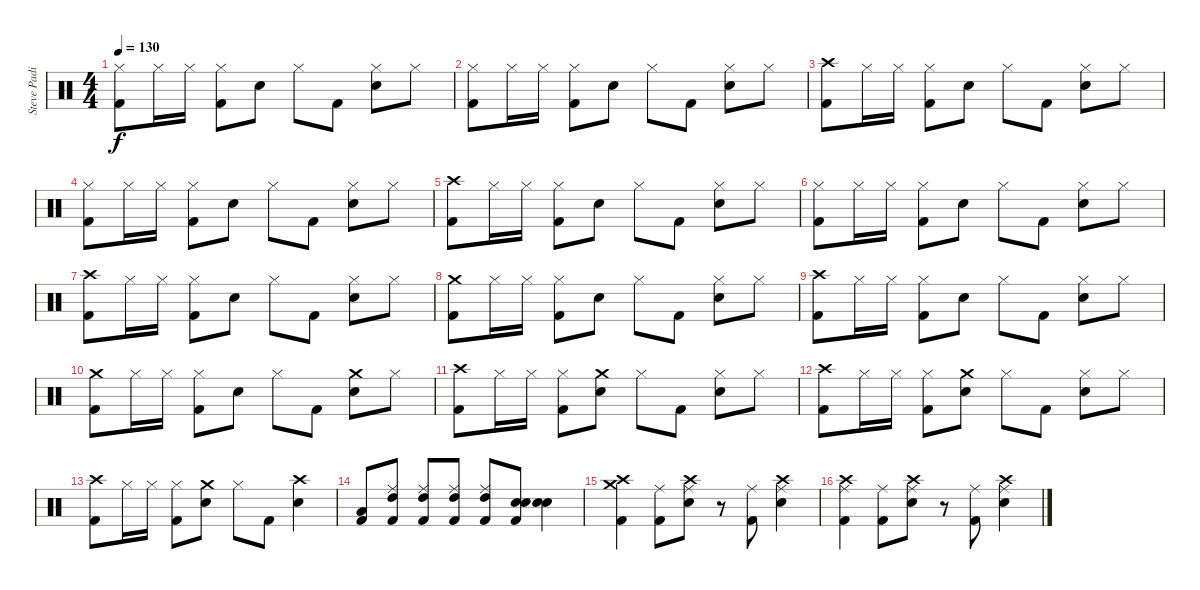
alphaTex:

\track ("Steve Padin" "Steve Padi") {instrument percussion}
\staff {score}
\articulation defaults
\ts (4 4)
\tempo 130
\clef neutral
\ks c
("Hi-Hat (closed)" "Kick (hit) 2").8{dy f} "Hi-Hat (closed)".16 "Hi-Hat (closed)".16 ("Hi-Hat (closed)" "Kick (hit) 2").8 "Electric Snare (hit)".8 "Hi-Hat (closed)".8 "Kick (hit) 2".8 ("Hi-Hat (closed)" "Electric Snare (hit)").8 "Hi-Hat (closed)".8 |
("Hi-Hat (closed)" "Kick (hit) 2").8 "Hi-Hat (closed)".16 "Hi-Hat (closed)".16 ("Hi-Hat (closed)" "Kick (hit) 2").8 "Electric Snare (hit)".8 "Hi-Hat (closed)".8 "Kick (hit) 2".8 ("Hi-Hat (closed)" "Electric Snare (hit)").8 "Hi-Hat (closed)".8 |
("Crash high (hit)" "Kick (hit) 2").8 "Hi-Hat (closed)".16 "Hi-Hat (closed)".16 ("Hi-Hat (closed)" "Kick (hit) 2").8 "Electric Snare (hit)".8 "Hi-Hat (closed)".8 "Kick (hit) 2".8 ("Hi-Hat (closed)" "Electric Snare (hit)").8 "Hi-Hat (closed)".8 |
("Hi-Hat (closed)" "Kick (hit) 2").8 "Hi-Hat (closed)".16 "Hi-Hat (closed)".16 ("Hi-Hat (closed)" "Kick (hit) 2").8 "Electric Snare (hit)".8 "Hi-Hat (closed)".8 "Kick (hit) 2".8 ("Hi-Hat (closed)" "Electric Snare (hit)").8 "Hi-Hat (closed)".8 |
("Crash high (hit)" "Kick (hit) 2").8 "Hi-Hat (closed)".16 "Hi-Hat (closed)".16 ("Hi-Hat (closed)" "Kick (hit) 2").8 "Electric Snare (hit)".8 "Hi-Hat (closed)".8 "Kick (hit) 2".8 ("Hi-Hat (closed)" "Electric Snare (hit)").8 "Hi-Hat (closed)".8 |
("Hi-Hat (closed)" "Kick (hit) 2").8 "Hi-Hat (closed)".16 "Hi-Hat (closed)".16 ("Hi-Hat (closed)" "Kick (hit) 2").8 "Electric Snare (hit)".8 "Hi-Hat (closed)".8 "Kick (hit) 2".8 ("Hi-Hat (closed)" "Electric Snare (hit)").8 "Hi-Hat (closed)".8 |
("Crash high (hit)" "Kick (hit) 2").8 "Hi-Hat (closed)".16 "Hi-Hat (closed)".16 ("Hi-Hat (closed)" "Kick (hit) 2").8 "Electric Snare (hit)".8 "Hi-Hat (closed)".8 "Kick (hit) 2".8 ("Hi-Hat (closed)" "Electric Snare (hit)").8 "Hi-Hat (closed)".8 |
("Crash medium (hit)" "Kick (hit) 2").8 "Hi-Hat (closed)".16 "Hi-Hat (closed)".16 ("Hi-Hat (closed)" "Kick (hit) 2").8 "Electric Snare (hit)".8 "Hi-Hat (closed)".8 "Kick (hit) 2".8 ("Hi-Hat (closed)" "Electric Snare (hit)").8 "Hi-Hat (closed)".8 |
("Crash high (hit)" "Kick (hit) 2").8 "Hi-Hat (closed)".16 "Hi-Hat (closed)".16 ("Hi-Hat (closed)" "Kick (hit) 2").8 "Electric Snare (hit)".8 "Hi-Hat (closed)".8 "Kick (hit) 2".8 ("Hi-Hat (closed)" "Electric Snare (hit)").8 "Hi-Hat (closed)".8 |
("Crash medium (hit)" "Kick (hit) 2").8 "Hi-Hat (closed)".16 "Hi-Hat (closed)".16 ("Hi-Hat (closed)" "Kick (hit) 2").8 "Electric Snare (hit)".8 "Hi-Hat (closed)".8 "Kick (hit) 2".8 ("Crash medium (hit)" "Electric Snare (hit)").8 "Hi-Hat (closed)".8 |
("Crash high (hit)" "Kick (hit) 2").8 "Hi-Hat (closed)".16 "Hi-Hat (closed)".16 ("Hi-Hat (closed)" "Kick (hit) 2").8 ("Crash medium (hit)" "Electric Snare (hit)").8 "Hi-Hat (closed)".8 "Kick (hit) 2".8 ("Hi-Hat (closed)" "Electric Snare (hit)").8 "Hi-Hat (closed)".8 |
("Crash high (hit)" "Kick (hit) 2").8 "Hi-Hat (closed)".16 "Hi-Hat (closed)".16 ("Hi-Hat (closed)" "Kick (hit) 2").8 ("Crash medium (hit)" "Electric Snare (hit)").8 "Hi-Hat (closed)".8 "Kick (hit) 2".8 ("Hi-Hat (closed)" "Electric Snare (hit)").8 "Hi-Hat (closed)".8 |
("Crash high (hit)" "Kick (hit) 2").8 "Hi-Hat (closed)".16 "Hi-Hat (closed)".16 ("Hi-Hat (closed)" "Kick (hit) 2").8 ("Crash medium (hit)" "Electric Snare (hit)").8 "Hi-Hat (closed)".8 "Kick (hit) 2".8 ("Crash high (hit)" "Electric Snare (hit)").4 |
("Low Tom (hit)" "Kick (hit) 2").8 ("Ride (middle)" "High Tom (hit)" "Kick (hit) 2").8 ("Ride (middle)" "High Tom (hit)" "Kick (hit) 2").8 ("Ride (middle)" "High Tom (hit)" "Kick (hit) 2").8 ("Ride (middle)" "High Tom (hit)" "Kick (hit) 2").8 ("Electric Snare (hit)" "Electric Snare (hit)" "Kick (hit) 2").8 ("Electric Snare (hit)" "Electric Snare (hit)").4 |
("Crash high (hit)" "Crash medium (hit)" "Kick (hit) 2").4 ("Ride (middle)" "Kick (hit) 2").8 ("Crash high (hit)" "Ride (middle)" "Electric Snare (hit)").8 r.8 ("Ride (middle)" "Kick (hit) 2").8 ("Crash high (hit)" "Ride (middle)" "Electric Snare (hit)").4 |
("Crash high (hit)" "Ride (middle)" "Kick (hit) 2").4 ("Ride (middle)" "Kick (hit) 2").8 ("Crash high (hit)" "Ride (middle)" "Electric Snare (hit)").8 r.8 ("Ride (middle)" "Kick (hit) 2").8 ("Crash high (hit)" "Ride (middle)" "Electric Snare (hit)").4
